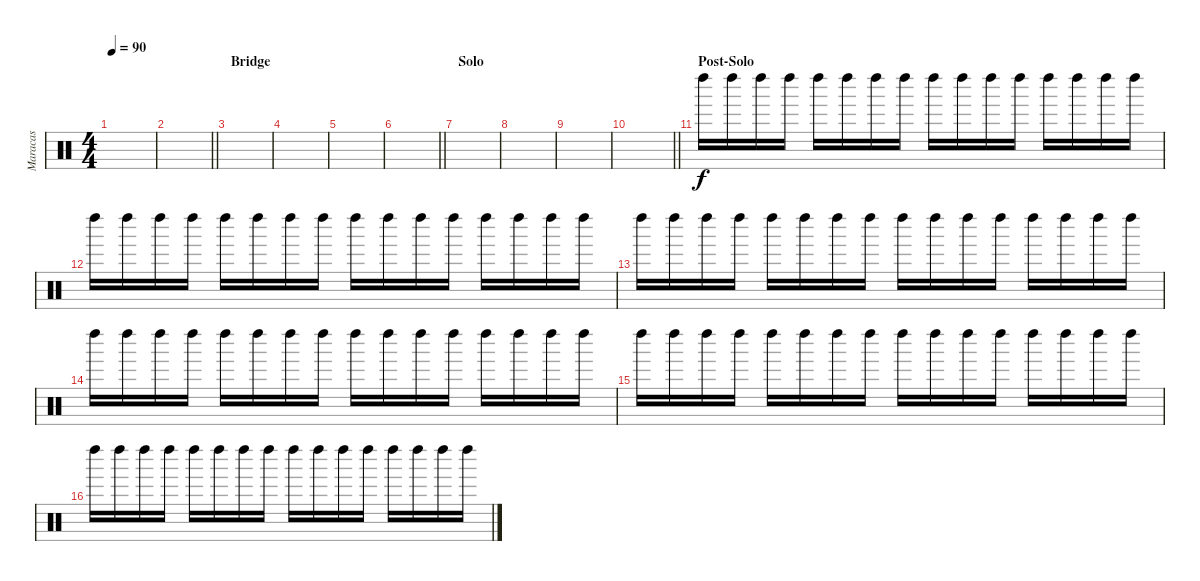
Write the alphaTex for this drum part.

\track ("Maracas" "Maracas") {instrument percussion}
\staff {score}
\articulation defaults
\ts (4 4)
\tempo 90
\clef neutral
\ks c
|
\barLineRight lightlight
|
\section ("" "Bridge")
|
|
|
\barLineRight lightlight
|
\section ("" "Solo")
|
|
|
\barLineRight lightlight
|
\section ("" "Post-Solo")
"Left Maraca (hit)".16 "Left Maraca (hit)".16 "Left Maraca (hit)".16 "Left Maraca (hit)".16 "Left Maraca (hit)".16 "Left Maraca (hit)".16 "Left Maraca (hit)".16 "Left Maraca (hit)".16 "Left Maraca (hit)".16 "Left Maraca (hit)".16 "Left Maraca (hit)".16 "Left Maraca (hit)".16 "Left Maraca (hit)".16 "Left Maraca (hit)".16 "Left Maraca (hit)".16 "Left Maraca (hit)".16 |
"Left Maraca (hit)".16 "Left Maraca (hit)".16 "Left Maraca (hit)".16 "Left Maraca (hit)".16 "Left Maraca (hit)".16 "Left Maraca (hit)".16 "Left Maraca (hit)".16 "Left Maraca (hit)".16 "Left Maraca (hit)".16 "Left Maraca (hit)".16 "Left Maraca (hit)".16 "Left Maraca (hit)".16 "Left Maraca (hit)".16 "Left Maraca (hit)".16 "Left Maraca (hit)".16 "Left Maraca (hit)".16 |
"Left Maraca (hit)".16 "Left Maraca (hit)".16 "Left Maraca (hit)".16 "Left Maraca (hit)".16 "Left Maraca (hit)".16 "Left Maraca (hit)".16 "Left Maraca (hit)".16 "Left Maraca (hit)".16 "Left Maraca (hit)".16 "Left Maraca (hit)".16 "Left Maraca (hit)".16 "Left Maraca (hit)".16 "Left Maraca (hit)".16 "Left Maraca (hit)".16 "Left Maraca (hit)".16 "Left Maraca (hit)".16 |
"Left Maraca (hit)".16 "Left Maraca (hit)".16 "Left Maraca (hit)".16 "Left Maraca (hit)".16 "Left Maraca (hit)".16 "Left Maraca (hit)".16 "Left Maraca (hit)".16 "Left Maraca (hit)".16 "Left Maraca (hit)".16 "Left Maraca (hit)".16 "Left Maraca (hit)".16 "Left Maraca (hit)".16 "Left Maraca (hit)".16 "Left Maraca (hit)".16 "Left Maraca (hit)".16 "Left Maraca (hit)".16 |
"Left Maraca (hit)".16 "Left Maraca (hit)".16 "Left Maraca (hit)".16 "Left Maraca (hit)".16 "Left Maraca (hit)".16 "Left Maraca (hit)".16 "Left Maraca (hit)".16 "Left Maraca (hit)".16 "Left Maraca (hit)".16 "Left Maraca (hit)".16 "Left Maraca (hit)".16 "Left Maraca (hit)".16 "Left Maraca (hit)".16 "Left Maraca (hit)".16 "Left Maraca (hit)".16 "Left Maraca (hit)".16 |
"Left Maraca (hit)".16 "Left Maraca (hit)".16 "Left Maraca (hit)".16 "Left Maraca (hit)".16 "Left Maraca (hit)".16 "Left Maraca (hit)".16 "Left Maraca (hit)".16 "Left Maraca (hit)".16 "Left Maraca (hit)".16 "Left Maraca (hit)".16 "Left Maraca (hit)".16 "Left Maraca (hit)".16 "Left Maraca (hit)".16 "Left Maraca (hit)".16 "Left Maraca (hit)".16 "Left Maraca (hit)".16
